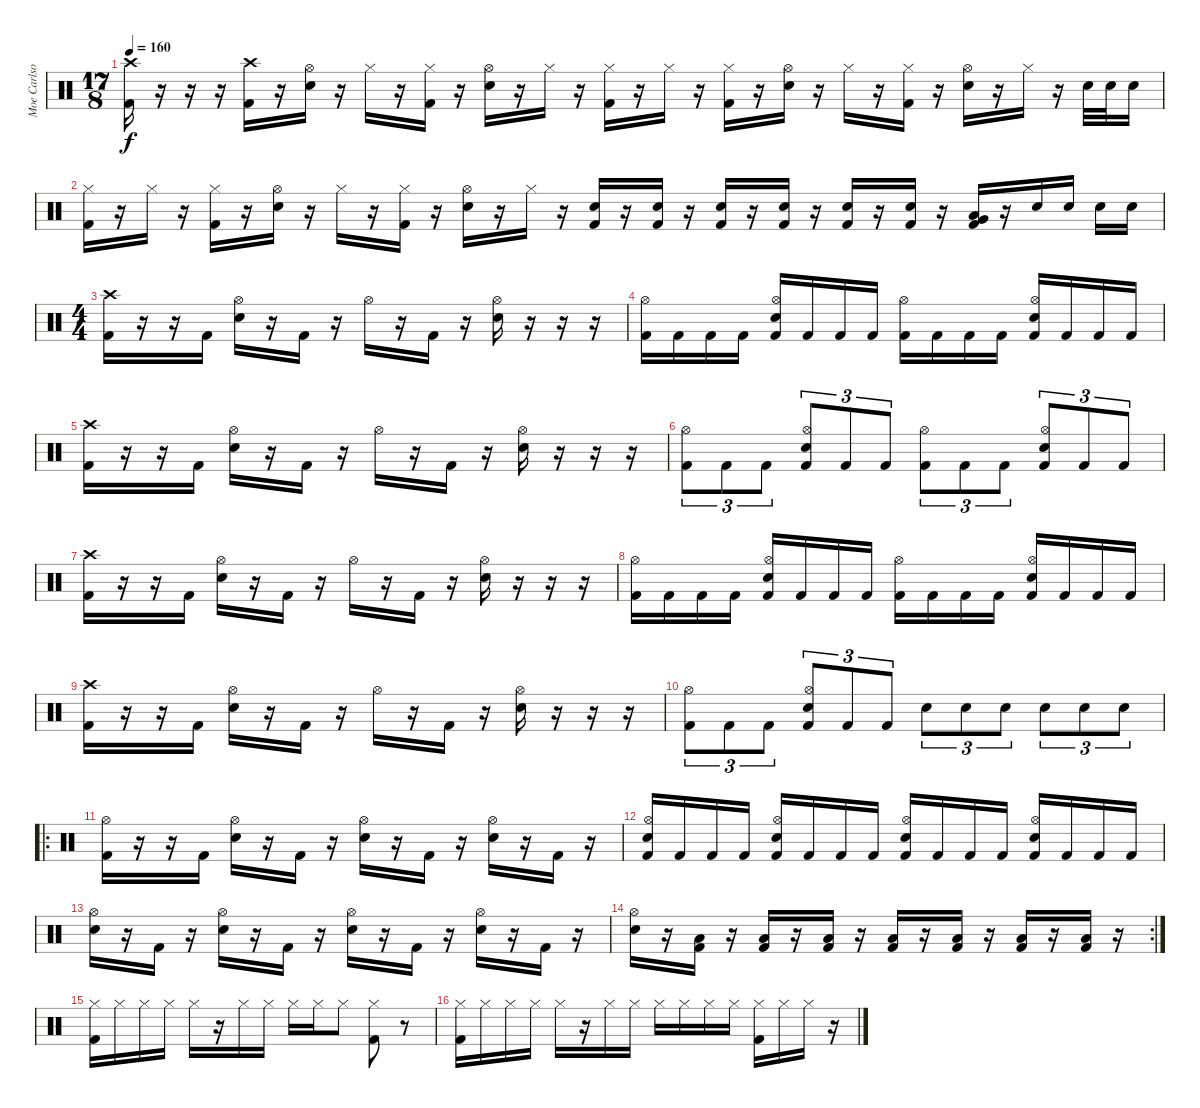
\track ("Moe Carlson" "Moe Carlso") {instrument percussion}
\staff {score}
\articulation defaults
\ts (17 8)
\tempo 160
\clef neutral
\ks c
("Crash high (hit)" "Kick (hit) 2").16{dy f} r.16 r.16 r.16 ("Crash high (hit)" "Kick (hit) 2").16 r.16 ("Hi-Hat (open)" "Electric Snare (hit)").16 r.16 "Hi-Hat (closed)".16 r.16 ("Hi-Hat (closed)" "Kick (hit) 2").16 r.16 ("Hi-Hat (open)" "Electric Snare (hit)").16 r.16 "Hi-Hat (closed)".16 r.16 ("Hi-Hat (closed)" "Kick (hit) 2").16 r.16 "Hi-Hat (closed)".16 r.16 ("Hi-Hat (closed)" "Kick (hit) 2").16 r.16 ("Hi-Hat (open)" "Electric Snare (hit)").16 r.16 "Hi-Hat (closed)".16 r.16 ("Hi-Hat (closed)" "Kick (hit) 2").16 r.16 ("Hi-Hat (open)" "Electric Snare (hit)").16 r.16 "Hi-Hat (closed)".16 r.16 "Electric Snare (hit)".32 "Electric Snare (hit)".32 "Electric Snare (hit)".16 |
("Hi-Hat (closed)" "Kick (hit) 2").16 r.16 "Hi-Hat (closed)".16 r.16 ("Hi-Hat (closed)" "Kick (hit) 2").16 r.16 ("Hi-Hat (open)" "Electric Snare (hit)").16 r.16 "Hi-Hat (closed)".16 r.16 ("Hi-Hat (closed)" "Kick (hit) 2").16 r.16 ("Hi-Hat (open)" "Electric Snare (hit)").16 r.16 "Hi-Hat (closed)".16 r.16 ("Electric Snare (hit)" "Kick (hit) 2").16 r.16 ("Electric Snare (hit)" "Kick (hit) 2").16 r.16 ("Electric Snare (hit)" "Kick (hit) 2").16 r.16 ("Electric Snare (hit)" "Kick (hit) 2").16 r.16 ("Electric Snare (hit)" "Kick (hit) 2").16 r.16 ("Electric Snare (hit)" "Kick (hit) 2").16 r.16 ("Low Tom (hit)" "Very Low Tom (hit)" "Kick (hit) 2").16 r.16 "Electric Snare (hit)".16 "Electric Snare (hit)".16 "Electric Snare (hit)".16 "Electric Snare (hit)".16 |
\ts (4 4)
("Crash high (hit)" "Kick (hit) 2").16 r.16 r.16 "Kick (hit) 2".16 ("Hi-Hat (open)" "Electric Snare (hit)").16 r.16 "Kick (hit) 2".16 r.16 "Hi-Hat (open)".16 r.16 "Kick (hit) 2".16 r.16 ("Hi-Hat (open)" "Electric Snare (hit)").16 r.16 r.16 r.16 |
("Hi-Hat (open)" "Kick (hit) 2").16 "Kick (hit) 2".16 "Kick (hit) 2".16 "Kick (hit) 2".16 ("Hi-Hat (open)" "Electric Snare (hit)" "Kick (hit) 2").16 "Kick (hit) 2".16 "Kick (hit) 2".16 "Kick (hit) 2".16 ("Hi-Hat (open)" "Kick (hit) 2").16 "Kick (hit) 2".16 "Kick (hit) 2".16 "Kick (hit) 2".16 ("Hi-Hat (open)" "Electric Snare (hit)" "Kick (hit) 2").16 "Kick (hit) 2".16 "Kick (hit) 2".16 "Kick (hit) 2".16 |
("Crash high (hit)" "Kick (hit) 2").16 r.16 r.16 "Kick (hit) 2".16 ("Hi-Hat (open)" "Electric Snare (hit)").16 r.16 "Kick (hit) 2".16 r.16 "Hi-Hat (open)".16 r.16 "Kick (hit) 2".16 r.16 ("Hi-Hat (open)" "Electric Snare (hit)").16 r.16 r.16 r.16 |
("Hi-Hat (open)" "Kick (hit) 2").8{tu (3 2)} "Kick (hit) 2".8{tu (3 2)} "Kick (hit) 2".8{tu (3 2)} ("Hi-Hat (open)" "Electric Snare (hit)" "Kick (hit) 2").8{tu (3 2)} "Kick (hit) 2".8{tu (3 2)} "Kick (hit) 2".8{tu (3 2)} ("Hi-Hat (open)" "Kick (hit) 2").8{tu (3 2)} "Kick (hit) 2".8{tu (3 2)} "Kick (hit) 2".8{tu (3 2)} ("Hi-Hat (open)" "Electric Snare (hit)" "Kick (hit) 2").8{tu (3 2)} "Kick (hit) 2".8{tu (3 2)} "Kick (hit) 2".8{tu (3 2)} |
("Crash high (hit)" "Kick (hit) 2").16 r.16 r.16 "Kick (hit) 2".16 ("Hi-Hat (open)" "Electric Snare (hit)").16 r.16 "Kick (hit) 2".16 r.16 "Hi-Hat (open)".16 r.16 "Kick (hit) 2".16 r.16 ("Hi-Hat (open)" "Electric Snare (hit)").16 r.16 r.16 r.16 |
("Hi-Hat (open)" "Kick (hit) 2").16 "Kick (hit) 2".16 "Kick (hit) 2".16 "Kick (hit) 2".16 ("Hi-Hat (open)" "Electric Snare (hit)" "Kick (hit) 2").16 "Kick (hit) 2".16 "Kick (hit) 2".16 "Kick (hit) 2".16 ("Hi-Hat (open)" "Kick (hit) 2").16 "Kick (hit) 2".16 "Kick (hit) 2".16 "Kick (hit) 2".16 ("Hi-Hat (open)" "Electric Snare (hit)" "Kick (hit) 2").16 "Kick (hit) 2".16 "Kick (hit) 2".16 "Kick (hit) 2".16 |
("Crash high (hit)" "Kick (hit) 2").16 r.16 r.16 "Kick (hit) 2".16 ("Hi-Hat (open)" "Electric Snare (hit)").16 r.16 "Kick (hit) 2".16 r.16 "Hi-Hat (open)".16 r.16 "Kick (hit) 2".16 r.16 ("Hi-Hat (open)" "Electric Snare (hit)").16 r.16 r.16 r.16 |
("Hi-Hat (open)" "Kick (hit) 2").8{tu (3 2)} "Kick (hit) 2".8{tu (3 2)} "Kick (hit) 2".8{tu (3 2)} ("Hi-Hat (open)" "Electric Snare (hit)" "Kick (hit) 2").8{tu (3 2)} "Kick (hit) 2".8{tu (3 2)} "Kick (hit) 2".8{tu (3 2)} "Electric Snare (hit)".8{tu (3 2)} "Electric Snare (hit)".8{tu (3 2)} "Electric Snare (hit)".8{tu (3 2)} "Electric Snare (hit)".8{tu (3 2)} "Electric Snare (hit)".8{tu (3 2)} "Electric Snare (hit)".8{tu (3 2)} |
\ro
("Hi-Hat (open)" "Kick (hit) 2").16 r.16 r.16 "Kick (hit) 2".16 ("Hi-Hat (open)" "Electric Snare (hit)").16 r.16 "Kick (hit) 2".16 r.16 ("Hi-Hat (open)" "Electric Snare (hit)").16 r.16 "Kick (hit) 2".16 r.16 ("Hi-Hat (open)" "Electric Snare (hit)").16 r.16 "Kick (hit) 2".16 r.16 |
("Hi-Hat (open)" "Electric Snare (hit)" "Kick (hit) 2").16 "Kick (hit) 2".16 "Kick (hit) 2".16 "Kick (hit) 2".16 ("Hi-Hat (open)" "Electric Snare (hit)" "Kick (hit) 2").16 "Kick (hit) 2".16 "Kick (hit) 2".16 "Kick (hit) 2".16 ("Hi-Hat (open)" "Electric Snare (hit)" "Kick (hit) 2").16 "Kick (hit) 2".16 "Kick (hit) 2".16 "Kick (hit) 2".16 ("Hi-Hat (open)" "Electric Snare (hit)" "Kick (hit) 2").16 "Kick (hit) 2".16 "Kick (hit) 2".16 "Kick (hit) 2".16 |
("Hi-Hat (open)" "Electric Snare (hit)").16 r.16 "Kick (hit) 2".16 r.16 ("Hi-Hat (open)" "Electric Snare (hit)").16 r.16 "Kick (hit) 2".16 r.16 ("Hi-Hat (open)" "Electric Snare (hit)").16 r.16 "Kick (hit) 2".16 r.16 ("Hi-Hat (open)" "Electric Snare (hit)").16 r.16 "Kick (hit) 2".16 r.16 |
\rc 2
("Hi-Hat (open)" "Electric Snare (hit)").16 r.16 ("Low Tom (hit)" "Kick (hit) 2").16 r.16 ("Low Tom (hit)" "Kick (hit) 2").16 r.16 ("Low Tom (hit)" "Kick (hit) 2").16 r.16 ("Low Tom (hit)" "Kick (hit) 2").16 r.16 ("Low Tom (hit)" "Kick (hit) 2").16 r.16 ("Low Tom (hit)" "Kick (hit) 2").16 r.16 ("Low Tom (hit)" "Kick (hit) 2").16 r.16 |
("Hi-Hat (closed)" "Kick (hit) 2").16 "Hi-Hat (closed)".16 "Hi-Hat (closed)".16 "Hi-Hat (closed)".16 "Hi-Hat (closed)".16 r.16 "Hi-Hat (closed)".16 "Hi-Hat (closed)".16 "Hi-Hat (closed)".16 "Hi-Hat (closed)".16 "Hi-Hat (closed)".8 ("Hi-Hat (closed)" "Kick (hit) 2").8 r.8 |
("Hi-Hat (closed)" "Kick (hit) 2").16 "Hi-Hat (closed)".16 "Hi-Hat (closed)".16 "Hi-Hat (closed)".16 "Hi-Hat (closed)".16 r.16 "Hi-Hat (closed)".16 "Hi-Hat (closed)".16 "Hi-Hat (closed)".16 "Hi-Hat (closed)".16 "Hi-Hat (closed)".16 "Hi-Hat (closed)".16 ("Hi-Hat (closed)" "Kick (hit) 2").16 "Hi-Hat (closed)".16 "Hi-Hat (closed)".16 r.16
